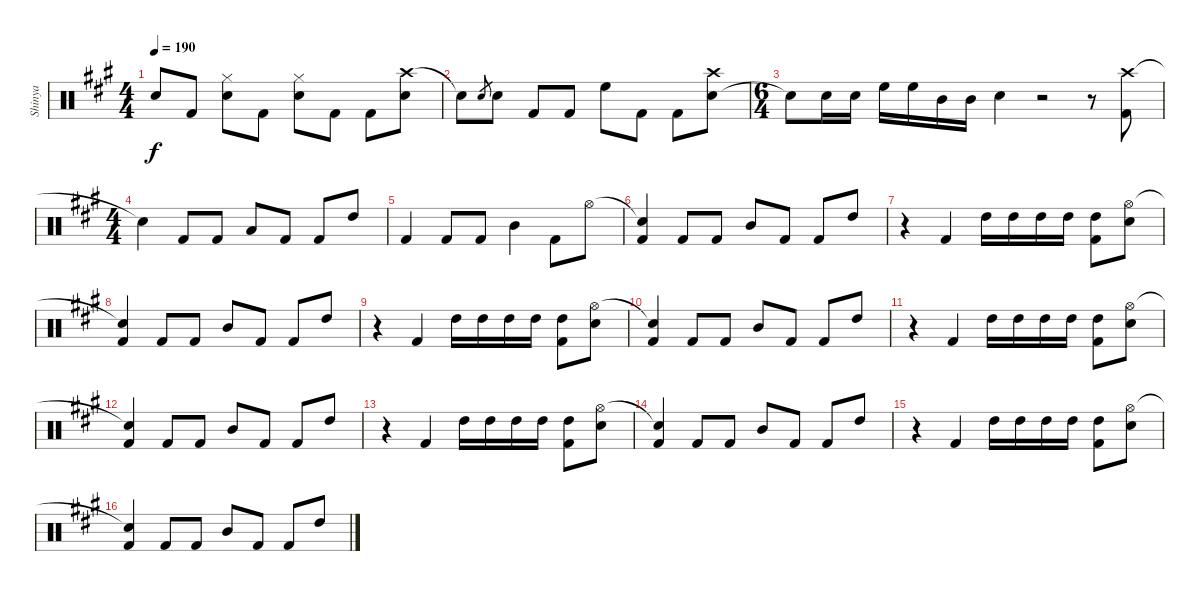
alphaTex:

\track ("Shinya" "Shinya") {instrument percussion}
\staff {score}
\articulation defaults
\ts (4 4)
\tempo 190
\clef neutral
\ks a "Snare (hit)"{t}.8{dy f} "Kick (hit) 2".8
("Hi-Hat (closed)" "Snare (hit) 2").8 "Kick (hit) 2".8 ("Hi-Hat (closed)" "Snare (hit) 2").8 "Kick (hit) 2".8 "Kick (hit) 2".8 ("Crash high (hit)" "Snare (hit) 2").8 |
"Snare (hit)"{t}.8 "Snare (hit) 2".8{gr} "Snare (hit) 2".8 "Kick (hit) 2".8 "Kick (hit) 2".8 "High Floor Tom (hit)".8 "Kick (hit) 2".8 "Kick (hit) 2".8 ("Snare (hit) 2" "Crash high (hit)").8 |
\ts (6 4)
"Snare (hit)"{t}.8 "Snare (hit) 2".16 "Snare (hit) 2".16 "High Floor Tom (hit)".16 "High Floor Tom (hit)".16 "Mid Tom (hit)".16 "Mid Tom (hit)".16 "Snare (hit) 2".4 r.2 r.8 ("Crash high (hit)" "Kick (hit) 2").8 |
\ts (4 4)
"Snare (hit)"{t}.4 "Kick (hit) 2".8 "Kick (hit) 2".8 "Low Tom (hit)".8 "Kick (hit) 2".8 "Kick (hit) 2".8 "High Tom (hit)".8 |
"Kick (hit) 2".4 "Kick (hit) 2".8 "Kick (hit) 2".8 "Mid Tom (hit)".4 "Kick (hit) 2".8 "Hi-Hat (open)".8 |
("Snare (hit)"{t} "Kick (hit) 2").4 "Kick (hit) 2".8 "Kick (hit) 2".8 "Mid Tom (hit)".8 "Kick (hit) 2".8 "Kick (hit) 2".8 "High Tom (hit)".8 |
r.4 "Kick (hit) 2".4 "High Tom (hit)".16 "High Tom (hit)".16 "High Tom (hit)".16 "High Tom (hit)".16 ("High Tom (hit)" "Kick (hit) 2").8 ("Hi-Hat (open)" "Snare (hit) 2").8 |
("Snare (hit)"{t} "Kick (hit) 2").4 "Kick (hit) 2".8 "Kick (hit) 2".8 "Mid Tom (hit)".8 "Kick (hit) 2".8 "Kick (hit) 2".8 "High Tom (hit)".8 |
r.4 "Kick (hit) 2".4 "High Tom (hit)".16 "High Tom (hit)".16 "High Tom (hit)".16 "High Tom (hit)".16 ("High Tom (hit)" "Kick (hit) 2").8 ("Hi-Hat (open)" "Snare (hit) 2").8 |
("Snare (hit)"{t} "Kick (hit) 2").4 "Kick (hit) 2".8 "Kick (hit) 2".8 "Mid Tom (hit)".8 "Kick (hit) 2".8 "Kick (hit) 2".8 "High Tom (hit)".8 |
r.4 "Kick (hit) 2".4 "High Tom (hit)".16 "High Tom (hit)".16 "High Tom (hit)".16 "High Tom (hit)".16 ("High Tom (hit)" "Kick (hit) 2").8 ("Hi-Hat (open)" "Snare (hit) 2").8 |
("Snare (hit)"{t} "Kick (hit) 2").4 "Kick (hit) 2".8 "Kick (hit) 2".8 "Mid Tom (hit)".8 "Kick (hit) 2".8 "Kick (hit) 2".8 "High Tom (hit)".8 |
r.4 "Kick (hit) 2".4 "High Tom (hit)".16 "High Tom (hit)".16 "High Tom (hit)".16 "High Tom (hit)".16 ("High Tom (hit)" "Kick (hit) 2").8 ("Hi-Hat (open)" "Snare (hit) 2").8 |
("Snare (hit)"{t} "Kick (hit) 2").4 "Kick (hit) 2".8 "Kick (hit) 2".8 "Mid Tom (hit)".8 "Kick (hit) 2".8 "Kick (hit) 2".8 "High Tom (hit)".8 |
r.4 "Kick (hit) 2".4 "High Tom (hit)".16 "High Tom (hit)".16 "High Tom (hit)".16 "High Tom (hit)".16 ("High Tom (hit)" "Kick (hit) 2").8 ("Hi-Hat (open)" "Snare (hit) 2").8 |
("Snare (hit)"{t} "Kick (hit) 2").4 "Kick (hit) 2".8 "Kick (hit) 2".8 "Mid Tom (hit)".8 "Kick (hit) 2".8 "Kick (hit) 2".8 "High Tom (hit)".8
